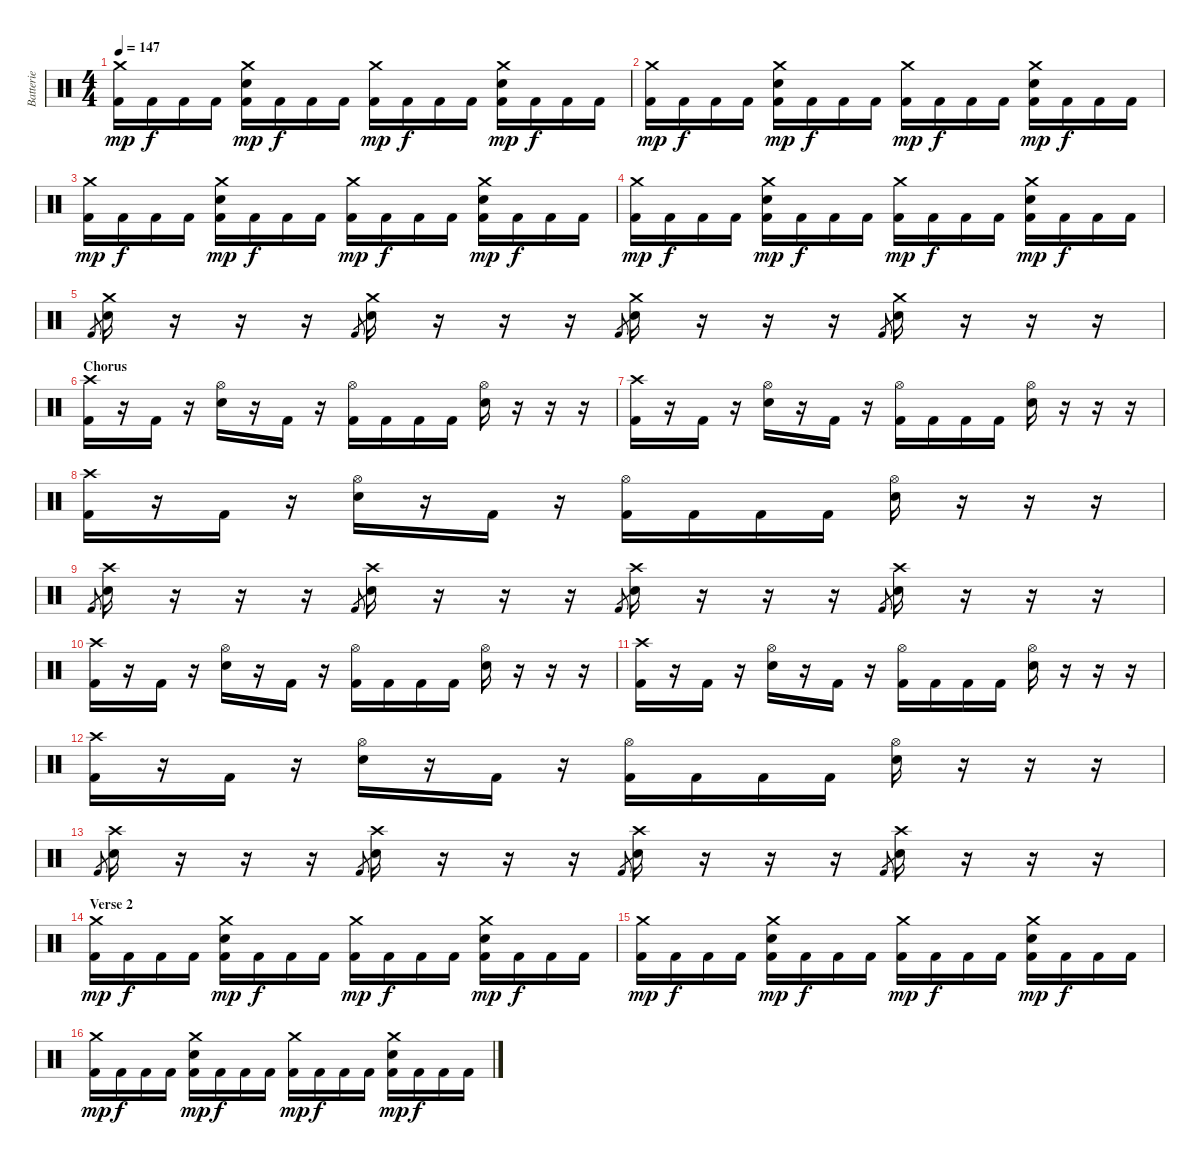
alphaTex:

\track ("Batterie" "Batterie") {instrument percussion}
\staff {score}
\articulation defaults
\ts (4 4)
\tempo 147
\clef neutral
\ks c
("Crash medium (hit)" "Kick (hit) 2").16{dy mp} "Kick (hit) 2".16{dy f} "Kick (hit) 2".16 "Kick (hit) 2".16 ("Crash medium (hit)" "Kick (hit) 2" "Electric Snare (hit)").16{dy mp} "Kick (hit) 2".16{dy f} "Kick (hit) 2".16 "Kick (hit) 2".16 ("Crash medium (hit)" "Kick (hit) 2").16{dy mp} "Kick (hit) 2".16{dy f} "Kick (hit) 2".16 "Kick (hit) 2".16 ("Crash medium (hit)" "Kick (hit) 2" "Electric Snare (hit)").16{dy mp} "Kick (hit) 2".16{dy f} "Kick (hit) 2".16 "Kick (hit) 2".16 |
("Crash medium (hit)" "Kick (hit) 2").16{dy mp} "Kick (hit) 2".16{dy f} "Kick (hit) 2".16 "Kick (hit) 2".16 ("Crash medium (hit)" "Kick (hit) 2" "Electric Snare (hit)").16{dy mp} "Kick (hit) 2".16{dy f} "Kick (hit) 2".16 "Kick (hit) 2".16 ("Crash medium (hit)" "Kick (hit) 2").16{dy mp} "Kick (hit) 2".16{dy f} "Kick (hit) 2".16 "Kick (hit) 2".16 ("Crash medium (hit)" "Kick (hit) 2" "Electric Snare (hit)").16{dy mp} "Kick (hit) 2".16{dy f} "Kick (hit) 2".16 "Kick (hit) 2".16 |
("Crash medium (hit)" "Kick (hit) 2").16{dy mp} "Kick (hit) 2".16{dy f} "Kick (hit) 2".16 "Kick (hit) 2".16 ("Crash medium (hit)" "Kick (hit) 2" "Electric Snare (hit)").16{dy mp} "Kick (hit) 2".16{dy f} "Kick (hit) 2".16 "Kick (hit) 2".16 ("Crash medium (hit)" "Kick (hit) 2").16{dy mp} "Kick (hit) 2".16{dy f} "Kick (hit) 2".16 "Kick (hit) 2".16 ("Crash medium (hit)" "Kick (hit) 2" "Electric Snare (hit)").16{dy mp} "Kick (hit) 2".16{dy f} "Kick (hit) 2".16 "Kick (hit) 2".16 |
("Crash medium (hit)" "Kick (hit) 2").16{dy mp} "Kick (hit) 2".16{dy f} "Kick (hit) 2".16 "Kick (hit) 2".16 ("Crash medium (hit)" "Kick (hit) 2" "Electric Snare (hit)").16{dy mp} "Kick (hit) 2".16{dy f} "Kick (hit) 2".16 "Kick (hit) 2".16 ("Crash medium (hit)" "Kick (hit) 2").16{dy mp} "Kick (hit) 2".16{dy f} "Kick (hit) 2".16 "Kick (hit) 2".16 ("Crash medium (hit)" "Kick (hit) 2" "Electric Snare (hit)").16{dy mp} "Kick (hit) 2".16{dy f} "Kick (hit) 2".16 "Kick (hit) 2".16 |
"Kick (hit) 2".8{gr} ("Crash medium (hit)" "Snare (hit) 2").16 r.16 r.16 r.16 "Kick (hit) 2".8{gr} ("Crash medium (hit)" "Snare (hit) 2").16 r.16 r.16 r.16 "Kick (hit) 2".8{gr} ("Crash medium (hit)" "Snare (hit) 2").16 r.16 r.16 r.16 "Kick (hit) 2".8{gr} ("Crash medium (hit)" "Snare (hit) 2").16 r.16 r.16 r.16 |
\section ("" "Chorus")
("Crash high (hit)" "Kick (hit) 2").16 r.16 "Kick (hit) 2".16 r.16 ("Hi-Hat (open)" "Electric Snare (hit)").16 r.16 "Kick (hit) 2".16 r.16 ("Hi-Hat (open)" "Kick (hit) 2").16 "Kick (hit) 2".16 "Kick (hit) 2".16 "Kick (hit) 2".16 ("Hi-Hat (open)" "Electric Snare (hit)").16 r.16 r.16 r.16 |
("Crash high (hit)" "Kick (hit) 2").16 r.16 "Kick (hit) 2".16 r.16 ("Hi-Hat (open)" "Electric Snare (hit)").16 r.16 "Kick (hit) 2".16 r.16 ("Hi-Hat (open)" "Kick (hit) 2").16 "Kick (hit) 2".16 "Kick (hit) 2".16 "Kick (hit) 2".16 ("Hi-Hat (open)" "Electric Snare (hit)").16 r.16 r.16 r.16 |
("Crash high (hit)" "Kick (hit) 2").16 r.16 "Kick (hit) 2".16 r.16 ("Hi-Hat (open)" "Electric Snare (hit)").16 r.16 "Kick (hit) 2".16 r.16 ("Hi-Hat (open)" "Kick (hit) 2").16 "Kick (hit) 2".16 "Kick (hit) 2".16 "Kick (hit) 2".16 ("Hi-Hat (open)" "Electric Snare (hit)").16 r.16 r.16 r.16 |
"Kick (hit) 2".8{gr} ("Crash high (hit)" "Electric Snare (hit)").16 r.16 r.16 r.16 "Kick (hit) 2".8{gr} ("Crash high (hit)" "Electric Snare (hit)").16 r.16 r.16 r.16 "Kick (hit) 2".8{gr} ("Crash high (hit)" "Electric Snare (hit)").16 r.16 r.16 r.16 "Kick (hit) 2".8{gr} ("Crash high (hit)" "Electric Snare (hit)").16 r.16 r.16 r.16 |
("Crash high (hit)" "Kick (hit) 2").16 r.16 "Kick (hit) 2".16 r.16 ("Hi-Hat (open)" "Electric Snare (hit)").16 r.16 "Kick (hit) 2".16 r.16 ("Hi-Hat (open)" "Kick (hit) 2").16 "Kick (hit) 2".16 "Kick (hit) 2".16 "Kick (hit) 2".16 ("Hi-Hat (open)" "Electric Snare (hit)").16 r.16 r.16 r.16 |
("Crash high (hit)" "Kick (hit) 2").16 r.16 "Kick (hit) 2".16 r.16 ("Hi-Hat (open)" "Electric Snare (hit)").16 r.16 "Kick (hit) 2".16 r.16 ("Hi-Hat (open)" "Kick (hit) 2").16 "Kick (hit) 2".16 "Kick (hit) 2".16 "Kick (hit) 2".16 ("Hi-Hat (open)" "Electric Snare (hit)").16 r.16 r.16 r.16 |
("Crash high (hit)" "Kick (hit) 2").16 r.16 "Kick (hit) 2".16 r.16 ("Hi-Hat (open)" "Electric Snare (hit)").16 r.16 "Kick (hit) 2".16 r.16 ("Hi-Hat (open)" "Kick (hit) 2").16 "Kick (hit) 2".16 "Kick (hit) 2".16 "Kick (hit) 2".16 ("Hi-Hat (open)" "Electric Snare (hit)").16 r.16 r.16 r.16 |
"Kick (hit) 2".8{gr} ("Crash high (hit)" "Electric Snare (hit)").16 r.16 r.16 r.16 "Kick (hit) 2".8{gr} ("Crash high (hit)" "Electric Snare (hit)").16 r.16 r.16 r.16 "Kick (hit) 2".8{gr} ("Crash high (hit)" "Electric Snare (hit)").16 r.16 r.16 r.16 "Kick (hit) 2".8{gr} ("Crash high (hit)" "Electric Snare (hit)").16 r.16 r.16 r.16 |
\section ("" "Verse 2")
("Crash medium (hit)" "Kick (hit) 2").16{dy mp} "Kick (hit) 2".16{dy f} "Kick (hit) 2".16 "Kick (hit) 2".16 ("Crash medium (hit)" "Kick (hit) 2" "Electric Snare (hit)").16{dy mp} "Kick (hit) 2".16{dy f} "Kick (hit) 2".16 "Kick (hit) 2".16 ("Crash medium (hit)" "Kick (hit) 2").16{dy mp} "Kick (hit) 2".16{dy f} "Kick (hit) 2".16 "Kick (hit) 2".16 ("Crash medium (hit)" "Kick (hit) 2" "Electric Snare (hit)").16{dy mp} "Kick (hit) 2".16{dy f} "Kick (hit) 2".16 "Kick (hit) 2".16 |
("Crash medium (hit)" "Kick (hit) 2").16{dy mp} "Kick (hit) 2".16{dy f} "Kick (hit) 2".16 "Kick (hit) 2".16 ("Crash medium (hit)" "Kick (hit) 2" "Electric Snare (hit)").16{dy mp} "Kick (hit) 2".16{dy f} "Kick (hit) 2".16 "Kick (hit) 2".16 ("Crash medium (hit)" "Kick (hit) 2").16{dy mp} "Kick (hit) 2".16{dy f} "Kick (hit) 2".16 "Kick (hit) 2".16 ("Crash medium (hit)" "Kick (hit) 2" "Electric Snare (hit)").16{dy mp} "Kick (hit) 2".16{dy f} "Kick (hit) 2".16 "Kick (hit) 2".16 |
("Crash medium (hit)" "Kick (hit) 2").16{dy mp} "Kick (hit) 2".16{dy f} "Kick (hit) 2".16 "Kick (hit) 2".16 ("Crash medium (hit)" "Kick (hit) 2" "Electric Snare (hit)").16{dy mp} "Kick (hit) 2".16{dy f} "Kick (hit) 2".16 "Kick (hit) 2".16 ("Crash medium (hit)" "Kick (hit) 2").16{dy mp} "Kick (hit) 2".16{dy f} "Kick (hit) 2".16 "Kick (hit) 2".16 ("Crash medium (hit)" "Kick (hit) 2" "Electric Snare (hit)").16{dy mp} "Kick (hit) 2".16{dy f} "Kick (hit) 2".16 "Kick (hit) 2".16
